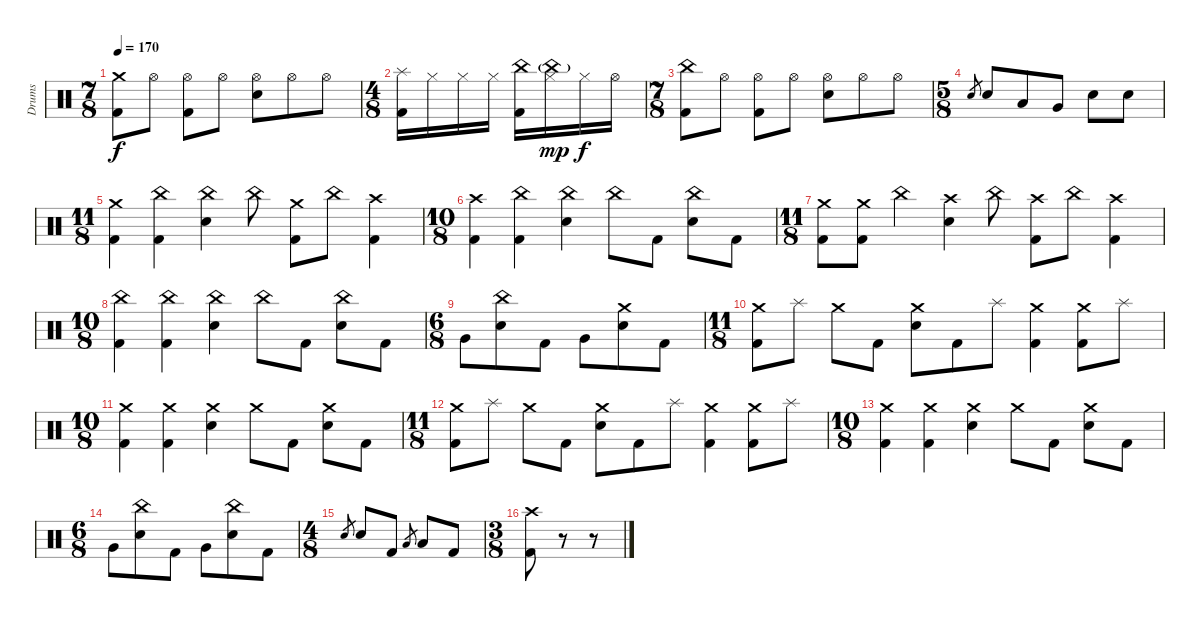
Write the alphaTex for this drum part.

\track ("Drums" "Drums") {instrument percussion}
\staff {score}
\articulation defaults
\ts (7 8)
\tempo 170
\clef neutral
\ks c
("Crash medium (hit)" "Kick (hit) 2").8{dy f beam merge} "Hi-Hat (open)".8{beam split} ("Hi-Hat (open)" "Kick (hit) 2").8{beam merge} "Hi-Hat (open)".8{beam split} ("Hi-Hat (open)" "Electric Snare (hit)").8{beam merge} "Hi-Hat (open)".8{beam merge} "Hi-Hat (open)".8 |
\ts (4 8)
("Splash (hit)" "Kick (hit) 2").16 "Hi-Hat (closed)".16{beam merge} "Hi-Hat (closed)".16 "Hi-Hat (closed)".16{beam split} ("China (hit)" "Kick (hit) 2").16 ("Hi-Hat (closed)" "China (hit)"{g}).16{dy mp beam merge} "Hi-Hat (closed)".16{dy f} "Hi-Hat (open)".16 |
\ts (7 8)
("China (hit)" "Kick (hit) 2").8{beam merge} "Hi-Hat (open)".8{beam split} ("Hi-Hat (open)" "Kick (hit) 2").8{beam merge} "Hi-Hat (open)".8{beam split} ("Hi-Hat (open)" "Electric Snare (hit)").8{beam merge} "Hi-Hat (open)".8{beam merge} "Hi-Hat (open)".8 |
\ts (5 8)
"Electric Snare (hit)".8{gr} "Electric Snare (hit)".8{beam merge} "Low Tom (hit)".8{beam merge} "Very Low Tom (hit)".8{beam split} "Electric Snare (hit)".8{beam merge} "Electric Snare (hit)".8 |
\ts (11 8)
("Crash medium (hit)" "Kick (hit) 2").4 ("China (hit)" "Kick (hit) 2").4 ("China (hit)" "Electric Snare (hit)").4 "China (hit)".8{beam split} ("Crash medium (hit)" "Kick (hit) 2").8{beam merge} "China (hit)".8 ("Crash high (hit)" "Kick (hit) 2").4 |
\ts (10 8)
("Crash high (hit)" "Kick (hit) 2").4 ("China (hit)" "Kick (hit) 2").4 ("China (hit)" "Electric Snare (hit)").4 "China (hit)".8{beam merge} "Kick (hit) 2".8{beam split} ("China (hit)" "Electric Snare (hit)").8{beam merge} "Kick (hit) 2".8 |
\ts (11 8)
("Crash medium (hit)" "Kick (hit) 2").8{beam merge} ("Crash medium (hit)" "Kick (hit) 2").8 "China (hit)".4 ("Crash high (hit)" "Electric Snare (hit)").4 "China (hit)".8{beam split} ("Crash high (hit)" "Kick (hit) 2").8{beam merge} "China (hit)".8 ("Crash high (hit)" "Kick (hit) 2").4 |
\ts (10 8)
("China (hit)" "Kick (hit) 2").4 ("China (hit)" "Kick (hit) 2").4 ("China (hit)" "Electric Snare (hit)").4 "China (hit)".8{beam merge} "Kick (hit) 2".8{beam split} ("China (hit)" "Electric Snare (hit)").8{beam merge} "Kick (hit) 2".8 |
\ts (6 8)
"Very Low Tom (hit)".8 ("China (hit)" "Electric Snare (hit)").8 "Kick (hit) 2".8{beam split} "Very Low Tom (hit)".8 ("Crash medium (hit)" "Electric Snare (hit)").8 "Kick (hit) 2".8 |
\ts (11 8)
("Crash medium (hit)" "Kick (hit) 2").8{beam merge} "Splash (hit)".8{beam split} "Crash medium (hit)".8{beam merge} "Kick (hit) 2".8{beam split} ("Crash medium (hit)" "Electric Snare (hit)").8{beam merge} "Kick (hit) 2".8{beam merge} "Splash (hit)".8 ("Crash medium (hit)" "Kick (hit) 2").4 ("Crash medium (hit)" "Kick (hit) 2").8{beam merge} "Splash (hit)".8 |
\ts (10 8)
("Crash medium (hit)" "Kick (hit) 2").4 ("Crash medium (hit)" "Kick (hit) 2").4 ("Crash medium (hit)" "Electric Snare (hit)").4 "Crash medium (hit)".8{beam merge} "Kick (hit) 2".8{beam split} ("Crash medium (hit)" "Electric Snare (hit)").8{beam merge} "Kick (hit) 2".8 |
\ts (11 8)
("Crash medium (hit)" "Kick (hit) 2").8{beam merge} "Splash (hit)".8{beam split} "Crash medium (hit)".8{beam merge} "Kick (hit) 2".8{beam split} ("Crash medium (hit)" "Electric Snare (hit)").8{beam merge} "Kick (hit) 2".8{beam merge} "Splash (hit)".8 ("Crash medium (hit)" "Kick (hit) 2").4 ("Crash medium (hit)" "Kick (hit) 2").8{beam merge} "Splash (hit)".8 |
\ts (10 8)
("Crash medium (hit)" "Kick (hit) 2").4 ("Crash medium (hit)" "Kick (hit) 2").4 ("Crash medium (hit)" "Electric Snare (hit)").4 "Crash medium (hit)".8{beam merge} "Kick (hit) 2".8{beam split} ("Crash medium (hit)" "Electric Snare (hit)").8{beam merge} "Kick (hit) 2".8 |
\ts (6 8)
"Very Low Tom (hit)".8 ("China (hit)" "Electric Snare (hit)").8 "Kick (hit) 2".8{beam split} "Very Low Tom (hit)".8 ("China (hit)" "Electric Snare (hit)").8 "Kick (hit) 2".8 |
\ts (4 8)
"Electric Snare (hit)".8{gr} "Electric Snare (hit)".8{beam merge} "Kick (hit) 2".8 "Low Tom (hit)".8{gr beam split} "Low Tom (hit)".8{beam merge} "Kick (hit) 2".8 |
\ts (3 8)
("Crash high (hit)" "Kick (hit) 2").8 r.8{volume 0} r.8
